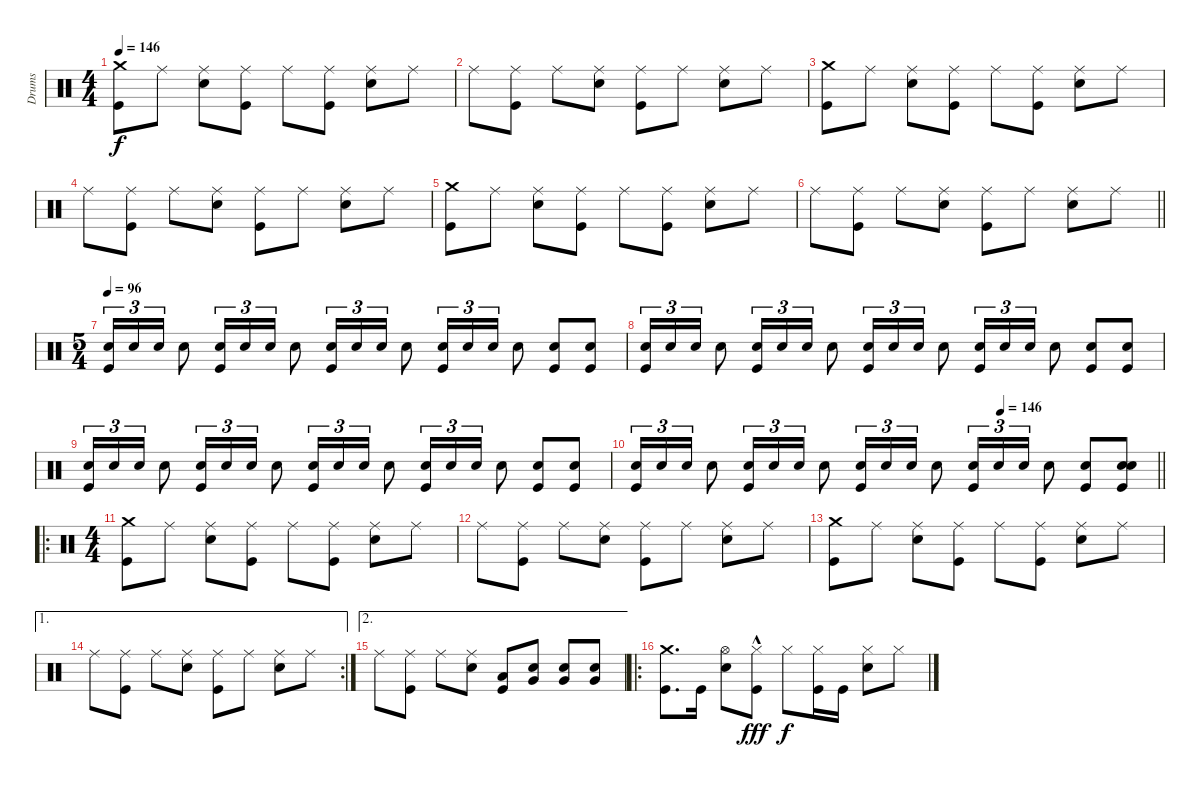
\track ("Drums" "Drums") {instrument percussion}
\staff {score}
\articulation defaults
\ts (4 4)
\tempo 146
\clef neutral
\ks c
("Crash medium (hit)" "Kick (hit)").8{dy f} "Ride (middle)".8 ("Ride (middle)" "Electric Snare (hit)").8 ("Ride (middle)" "Kick (hit)").8 "Ride (middle)".8 ("Ride (middle)" "Kick (hit)").8 ("Ride (middle)" "Electric Snare (hit)").8 "Ride (middle)".8 |
"Ride (middle)".8 ("Ride (middle)" "Kick (hit)").8 "Ride (middle)".8 ("Ride (middle)" "Electric Snare (hit)").8 ("Ride (middle)" "Kick (hit)").8 "Ride (middle)".8 ("Ride (middle)" "Electric Snare (hit)").8 "Ride (middle)".8 |
("Crash medium (hit)" "Kick (hit)").8 "Ride (middle)".8 ("Ride (middle)" "Electric Snare (hit)").8 ("Ride (middle)" "Kick (hit)").8 "Ride (middle)".8 ("Ride (middle)" "Kick (hit)").8 ("Ride (middle)" "Electric Snare (hit)").8 "Ride (middle)".8 |
"Ride (middle)".8 ("Ride (middle)" "Kick (hit)").8 "Ride (middle)".8 ("Ride (middle)" "Electric Snare (hit)").8 ("Ride (middle)" "Kick (hit)").8 "Ride (middle)".8 ("Ride (middle)" "Electric Snare (hit)").8 "Ride (middle)".8 |
("Crash medium (hit)" "Kick (hit)").8 "Ride (middle)".8 ("Ride (middle)" "Electric Snare (hit)").8 ("Ride (middle)" "Kick (hit)").8 "Ride (middle)".8 ("Ride (middle)" "Kick (hit)").8 ("Ride (middle)" "Electric Snare (hit)").8 "Ride (middle)".8 |
\barLineRight lightlight "Ride (middle)".8
("Ride (middle)" "Kick (hit)").8 "Ride (middle)".8 ("Ride (middle)" "Electric Snare (hit)").8 ("Ride (middle)" "Kick (hit)").8 "Ride (middle)".8 ("Ride (middle)" "Electric Snare (hit)").8 "Ride (middle)".8 |
\ts (5 4)
\tempo 96
("Electric Snare (hit)" "Kick (hit)").16{tu (3 2)} "Electric Snare (hit)".16{tu (3 2)} "Electric Snare (hit)".16{tu (3 2)} "Electric Snare (hit)".8 ("Electric Snare (hit)" "Kick (hit)").16{tu (3 2)} "Electric Snare (hit)".16{tu (3 2)} "Electric Snare (hit)".16{tu (3 2)} "Electric Snare (hit)".8 ("Electric Snare (hit)" "Kick (hit)").16{tu (3 2)} "Electric Snare (hit)".16{tu (3 2)} "Electric Snare (hit)".16{tu (3 2)} "Electric Snare (hit)".8 ("Electric Snare (hit)" "Kick (hit)").16{tu (3 2)} "Electric Snare (hit)".16{tu (3 2)} "Electric Snare (hit)".16{tu (3 2)} "Electric Snare (hit)".8 ("Electric Snare (hit)" "Kick (hit)").8 ("Electric Snare (hit)" "Kick (hit)").8 |
("Electric Snare (hit)" "Kick (hit)").16{tu (3 2)} "Electric Snare (hit)".16{tu (3 2)} "Electric Snare (hit)".16{tu (3 2)} "Electric Snare (hit)".8 ("Electric Snare (hit)" "Kick (hit)").16{tu (3 2)} "Electric Snare (hit)".16{tu (3 2)} "Electric Snare (hit)".16{tu (3 2)} "Electric Snare (hit)".8 ("Electric Snare (hit)" "Kick (hit)").16{tu (3 2)} "Electric Snare (hit)".16{tu (3 2)} "Electric Snare (hit)".16{tu (3 2)} "Electric Snare (hit)".8 ("Electric Snare (hit)" "Kick (hit)").16{tu (3 2)} "Electric Snare (hit)".16{tu (3 2)} "Electric Snare (hit)".16{tu (3 2)} "Electric Snare (hit)".8 ("Electric Snare (hit)" "Kick (hit)").8 ("Electric Snare (hit)" "Kick (hit)").8 |
("Electric Snare (hit)" "Kick (hit)").16{tu (3 2)} "Electric Snare (hit)".16{tu (3 2)} "Electric Snare (hit)".16{tu (3 2)} "Electric Snare (hit)".8 ("Electric Snare (hit)" "Kick (hit)").16{tu (3 2)} "Electric Snare (hit)".16{tu (3 2)} "Electric Snare (hit)".16{tu (3 2)} "Electric Snare (hit)".8 ("Electric Snare (hit)" "Kick (hit)").16{tu (3 2)} "Electric Snare (hit)".16{tu (3 2)} "Electric Snare (hit)".16{tu (3 2)} "Electric Snare (hit)".8 ("Electric Snare (hit)" "Kick (hit)").16{tu (3 2)} "Electric Snare (hit)".16{tu (3 2)} "Electric Snare (hit)".16{tu (3 2)} "Electric Snare (hit)".8 ("Electric Snare (hit)" "Kick (hit)").8 ("Electric Snare (hit)" "Kick (hit)").8 |
\tempo (146 0.7)
\barLineRight lightlight
("Electric Snare (hit)" "Kick (hit)").16{tu (3 2)} "Electric Snare (hit)".16{tu (3 2)} "Electric Snare (hit)".16{tu (3 2)} "Electric Snare (hit)".8 ("Electric Snare (hit)" "Kick (hit)").16{tu (3 2)} "Electric Snare (hit)".16{tu (3 2)} "Electric Snare (hit)".16{tu (3 2)} "Electric Snare (hit)".8 ("Electric Snare (hit)" "Kick (hit)").16{tu (3 2)} "Electric Snare (hit)".16{tu (3 2)} "Electric Snare (hit)".16{tu (3 2)} "Electric Snare (hit)".8 ("Electric Snare (hit)" "Kick (hit)").16{tu (3 2)} "Electric Snare (hit)".16{tu (3 2)} "Electric Snare (hit)".16{tu (3 2)} "Electric Snare (hit)".8 ("Electric Snare (hit)" "Kick (hit)").8 ("Electric Snare (hit)" "Electric Snare (hit)" "Kick (hit)").8 |
\ro
\ts (4 4)
("Crash medium (hit)" "Kick (hit)").8 "Ride (middle)".8 ("Ride (middle)" "Electric Snare (hit)").8 ("Ride (middle)" "Kick (hit)").8 "Ride (middle)".8 ("Ride (middle)" "Kick (hit)").8 ("Ride (middle)" "Electric Snare (hit)").8 "Ride (middle)".8 |
"Ride (middle)".8 ("Ride (middle)" "Kick (hit)").8 "Ride (middle)".8 ("Ride (middle)" "Electric Snare (hit)").8 ("Ride (middle)" "Kick (hit)").8 "Ride (middle)".8 ("Ride (middle)" "Electric Snare (hit)").8 "Ride (middle)".8 |
("Crash medium (hit)" "Kick (hit)").8 "Ride (middle)".8 ("Ride (middle)" "Electric Snare (hit)").8 ("Ride (middle)" "Kick (hit)").8 "Ride (middle)".8 ("Ride (middle)" "Kick (hit)").8 ("Ride (middle)" "Electric Snare (hit)").8 "Ride (middle)".8 |
\ae 1
\rc 2 "Ride (middle)".8
("Ride (middle)" "Kick (hit)").8 "Ride (middle)".8 ("Ride (middle)" "Electric Snare (hit)").8 ("Ride (middle)" "Kick (hit)").8 "Ride (middle)".8 ("Ride (middle)" "Electric Snare (hit)").8 "Ride (middle)".8 |
\ae 2 "Ride (middle)".8
("Ride (middle)" "Kick (hit)").8 "Ride (middle)".8 ("Ride (middle)" "Electric Snare (hit)").8 ("Low Floor Tom (hit)" "Kick (hit)").8 ("Electric Snare (hit)" "Very Low Tom (hit)").8 ("Electric Snare (hit)" "Very Low Tom (hit)").8 ("Electric Snare (hit)" "Very Low Tom (hit)").8 |
\ro
("Crash medium (hit)" "Kick (hit)").8{d} "Kick (hit)".16 ("Hi-Hat (open)" "Electric Snare (hit)").8 ("Hi-Hat (closed)"{hac} "Kick (hit)"{hac}).8{dy fff} "Hi-Hat (closed)".8{dy f} ("Hi-Hat (closed)" "Kick (hit)").16 "Kick (hit)".16 ("Hi-Hat (closed)" "Electric Snare (hit)").8 "Hi-Hat (closed)".8
